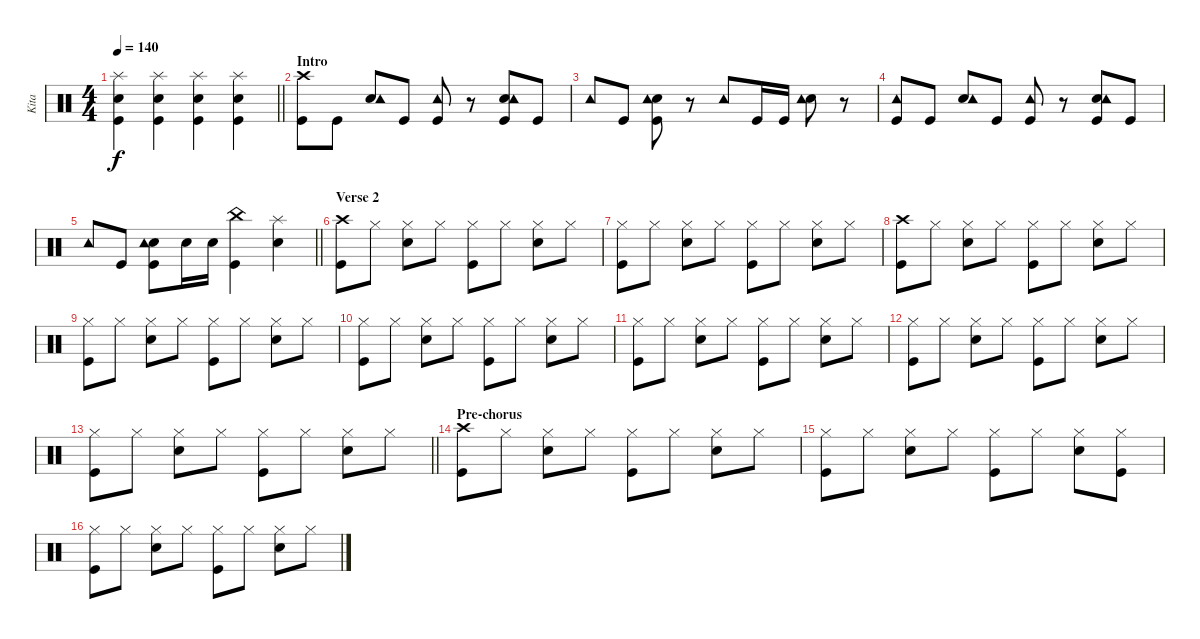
\track ("Kita" "Kita") {instrument percussion}
\staff {score}
\articulation defaults
\ts (4 4)
\tempo 140
\clef neutral
\barLineRight lightlight
\ks c
("Snare (hit) 2" "Kick (hit)" "Splash (hit)").4{dy f} ("Snare (hit) 2" "Kick (hit)" "Splash (hit)").4 ("Snare (hit) 2" "Kick (hit)" "Splash (hit)").4 ("Snare (hit) 2" "Kick (hit)" "Splash (hit)").4 |
\section ("" "Intro")
("Kick (hit)" "Crash high (hit)").8 "Kick (hit)".8 ("Snare (hit) 2" "Tambourine (hit)").8 "Kick (hit)".8 ("Kick (hit)" "Tambourine (hit)").8 r.8 ("Kick (hit)" "Snare (hit) 2" "Tambourine (hit)").8 "Kick (hit)".8 |
"Tambourine (hit)".8 "Kick (hit)".8 ("Kick (hit)" "Snare (hit) 2" "Tambourine (hit)").8 r.8 "Tambourine (hit)".8 "Kick (hit)".16 "Kick (hit)".16 ("Snare (hit) 2" "Tambourine (hit)").8 r.8 |
("Kick (hit)" "Tambourine (hit)").8 "Kick (hit)".8 ("Snare (hit) 2" "Tambourine (hit)").8 "Kick (hit)".8 ("Kick (hit)" "Tambourine (hit)").8 r.8 ("Kick (hit)" "Snare (hit) 2" "Tambourine (hit)").8 "Kick (hit)".8 |
\barLineRight lightlight "Tambourine (hit)".8 "Kick (hit)".8
("Kick (hit)" "Snare (hit) 2" "Tambourine (hit)").8 "Snare (hit) 2".16 "Snare (hit) 2".16 ("Kick (hit)" "China (hit)").4 ("Snare (hit) 2" "Splash (hit)").4 |
\section ("" "Verse 2")
("Crash high (hit)" "Kick (hit)").8 "Hi-Hat (closed)".8 ("Hi-Hat (closed)" "Snare (hit) 2").8 "Hi-Hat (closed)".8 ("Hi-Hat (closed)" "Kick (hit)").8 "Hi-Hat (closed)".8 ("Hi-Hat (closed)" "Snare (hit) 2").8 "Hi-Hat (closed)".8 |
("Hi-Hat (closed)" "Kick (hit)").8 "Hi-Hat (closed)".8 ("Hi-Hat (closed)" "Snare (hit) 2").8 "Hi-Hat (closed)".8 ("Hi-Hat (closed)" "Kick (hit)").8 "Hi-Hat (closed)".8 ("Hi-Hat (closed)" "Snare (hit) 2").8 "Hi-Hat (closed)".8 |
("Crash high (hit)" "Kick (hit)").8 "Hi-Hat (closed)".8 ("Hi-Hat (closed)" "Snare (hit) 2").8 "Hi-Hat (closed)".8 ("Hi-Hat (closed)" "Kick (hit)").8 "Hi-Hat (closed)".8 ("Hi-Hat (closed)" "Snare (hit) 2").8 "Hi-Hat (closed)".8 |
("Hi-Hat (closed)" "Kick (hit)").8 "Hi-Hat (closed)".8 ("Hi-Hat (closed)" "Snare (hit) 2").8 "Hi-Hat (closed)".8 ("Hi-Hat (closed)" "Kick (hit)").8 "Hi-Hat (closed)".8 ("Hi-Hat (closed)" "Snare (hit) 2").8 "Hi-Hat (closed)".8 |
("Hi-Hat (closed)" "Kick (hit)").8 "Hi-Hat (closed)".8 ("Hi-Hat (closed)" "Snare (hit) 2").8 "Hi-Hat (closed)".8 ("Hi-Hat (closed)" "Kick (hit)").8 "Hi-Hat (closed)".8 ("Hi-Hat (closed)" "Snare (hit) 2").8 "Hi-Hat (closed)".8 |
("Hi-Hat (closed)" "Kick (hit)").8 "Hi-Hat (closed)".8 ("Hi-Hat (closed)" "Snare (hit) 2").8 "Hi-Hat (closed)".8 ("Hi-Hat (closed)" "Kick (hit)").8 "Hi-Hat (closed)".8 ("Hi-Hat (closed)" "Snare (hit) 2").8 "Hi-Hat (closed)".8 |
("Hi-Hat (closed)" "Kick (hit)").8 "Hi-Hat (closed)".8 ("Hi-Hat (closed)" "Snare (hit) 2").8 "Hi-Hat (closed)".8 ("Hi-Hat (closed)" "Kick (hit)").8 "Hi-Hat (closed)".8 ("Hi-Hat (closed)" "Snare (hit) 2").8 "Hi-Hat (closed)".8 |
\barLineRight lightlight
("Hi-Hat (closed)" "Kick (hit)").8 "Hi-Hat (closed)".8 ("Hi-Hat (closed)" "Snare (hit) 2").8 "Hi-Hat (closed)".8 ("Hi-Hat (closed)" "Kick (hit)").8 "Hi-Hat (closed)".8 ("Hi-Hat (closed)" "Snare (hit) 2").8 "Hi-Hat (closed)".8 |
\section ("" "Pre-chorus")
("Crash high (hit)" "Kick (hit)").8 "Hi-Hat (closed)".8 ("Hi-Hat (closed)" "Snare (hit) 2").8 "Hi-Hat (closed)".8 ("Hi-Hat (closed)" "Kick (hit)").8 "Hi-Hat (closed)".8 ("Hi-Hat (closed)" "Snare (hit) 2").8 "Hi-Hat (closed)".8 |
("Hi-Hat (closed)" "Kick (hit)").8 "Hi-Hat (closed)".8 ("Hi-Hat (closed)" "Snare (hit) 2").8 "Hi-Hat (closed)".8 ("Hi-Hat (closed)" "Kick (hit)").8 "Hi-Hat (closed)".8 ("Hi-Hat (closed)" "Snare (hit) 2").8 ("Hi-Hat (closed)" "Kick (hit)").8 |
("Hi-Hat (closed)" "Kick (hit)").8 "Hi-Hat (closed)".8 ("Hi-Hat (closed)" "Snare (hit) 2").8 "Hi-Hat (closed)".8 ("Hi-Hat (closed)" "Kick (hit)").8 "Hi-Hat (closed)".8 ("Hi-Hat (closed)" "Snare (hit) 2").8 "Hi-Hat (closed)".8
